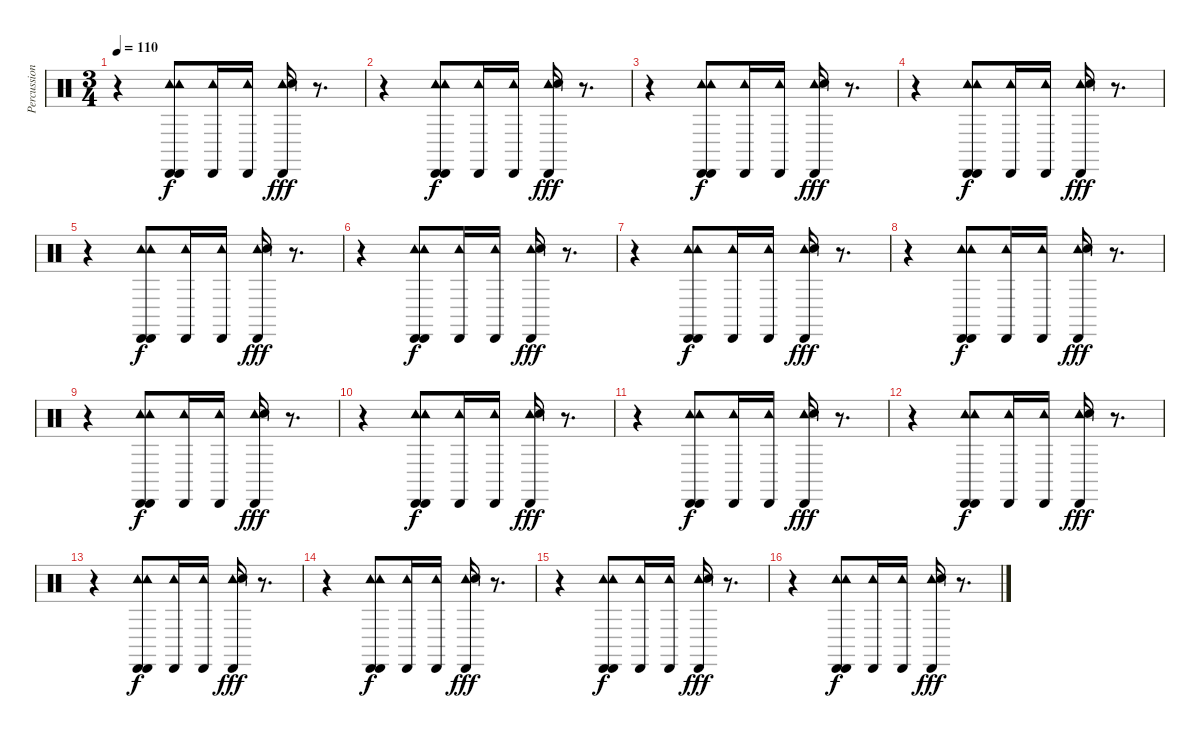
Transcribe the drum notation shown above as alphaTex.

\track ("Percussion" "Percussion") {instrument percussion}
\staff {score}
\articulation defaults
\ts (3 4)
\tempo 110
\clef neutral
\ks c
r.4{dy fff} ("Cabasa (hit)" "Cabasa (hit)" "Tambourine (hit)" "Tambourine (hit)").8{dy f} ("Tambourine (hit)" "Cabasa (hit)").16 ("Tambourine (hit)" "Cabasa (hit)").16 ("Tambourine (hit)" "Cabasa (hit)" "Electric Snare (hit)").16{dy fff} r.8{d} |
r.4 ("Cabasa (hit)" "Cabasa (hit)" "Tambourine (hit)" "Tambourine (hit)").8{dy f} ("Tambourine (hit)" "Cabasa (hit)").16 ("Tambourine (hit)" "Cabasa (hit)").16 ("Tambourine (hit)" "Cabasa (hit)" "Electric Snare (hit)").16{dy fff} r.8{d} |
r.4 ("Cabasa (hit)" "Cabasa (hit)" "Tambourine (hit)" "Tambourine (hit)").8{dy f} ("Tambourine (hit)" "Cabasa (hit)").16 ("Tambourine (hit)" "Cabasa (hit)").16 ("Tambourine (hit)" "Cabasa (hit)" "Electric Snare (hit)").16{dy fff} r.8{d} |
r.4 ("Cabasa (hit)" "Cabasa (hit)" "Tambourine (hit)" "Tambourine (hit)").8{dy f} ("Tambourine (hit)" "Cabasa (hit)").16 ("Tambourine (hit)" "Cabasa (hit)").16 ("Tambourine (hit)" "Cabasa (hit)" "Electric Snare (hit)").16{dy fff} r.8{d} |
r.4 ("Cabasa (hit)" "Cabasa (hit)" "Tambourine (hit)" "Tambourine (hit)").8{dy f} ("Tambourine (hit)" "Cabasa (hit)").16 ("Tambourine (hit)" "Cabasa (hit)").16 ("Tambourine (hit)" "Cabasa (hit)" "Electric Snare (hit)").16{dy fff} r.8{d} |
r.4 ("Cabasa (hit)" "Cabasa (hit)" "Tambourine (hit)" "Tambourine (hit)").8{dy f} ("Tambourine (hit)" "Cabasa (hit)").16 ("Tambourine (hit)" "Cabasa (hit)").16 ("Tambourine (hit)" "Cabasa (hit)" "Electric Snare (hit)").16{dy fff} r.8{d} |
r.4 ("Cabasa (hit)" "Cabasa (hit)" "Tambourine (hit)" "Tambourine (hit)").8{dy f} ("Tambourine (hit)" "Cabasa (hit)").16 ("Tambourine (hit)" "Cabasa (hit)").16 ("Tambourine (hit)" "Cabasa (hit)" "Electric Snare (hit)").16{dy fff} r.8{d} |
r.4 ("Cabasa (hit)" "Cabasa (hit)" "Tambourine (hit)" "Tambourine (hit)").8{dy f} ("Tambourine (hit)" "Cabasa (hit)").16 ("Tambourine (hit)" "Cabasa (hit)").16 ("Tambourine (hit)" "Cabasa (hit)" "Electric Snare (hit)").16{dy fff} r.8{d} |
r.4 ("Cabasa (hit)" "Cabasa (hit)" "Tambourine (hit)" "Tambourine (hit)").8{dy f} ("Tambourine (hit)" "Cabasa (hit)").16 ("Tambourine (hit)" "Cabasa (hit)").16 ("Tambourine (hit)" "Cabasa (hit)" "Electric Snare (hit)").16{dy fff} r.8{d} |
r.4 ("Cabasa (hit)" "Cabasa (hit)" "Tambourine (hit)" "Tambourine (hit)").8{dy f} ("Tambourine (hit)" "Cabasa (hit)").16 ("Tambourine (hit)" "Cabasa (hit)").16 ("Tambourine (hit)" "Cabasa (hit)" "Electric Snare (hit)").16{dy fff} r.8{d} |
r.4 ("Cabasa (hit)" "Cabasa (hit)" "Tambourine (hit)" "Tambourine (hit)").8{dy f} ("Tambourine (hit)" "Cabasa (hit)").16 ("Tambourine (hit)" "Cabasa (hit)").16 ("Tambourine (hit)" "Cabasa (hit)" "Electric Snare (hit)").16{dy fff} r.8{d} |
r.4 ("Cabasa (hit)" "Cabasa (hit)" "Tambourine (hit)" "Tambourine (hit)").8{dy f} ("Tambourine (hit)" "Cabasa (hit)").16 ("Tambourine (hit)" "Cabasa (hit)").16 ("Tambourine (hit)" "Cabasa (hit)" "Electric Snare (hit)").16{dy fff} r.8{d} |
r.4 ("Cabasa (hit)" "Cabasa (hit)" "Tambourine (hit)" "Tambourine (hit)").8{dy f} ("Tambourine (hit)" "Cabasa (hit)").16 ("Tambourine (hit)" "Cabasa (hit)").16 ("Tambourine (hit)" "Cabasa (hit)" "Electric Snare (hit)").16{dy fff} r.8{d} |
r.4 ("Cabasa (hit)" "Cabasa (hit)" "Tambourine (hit)" "Tambourine (hit)").8{dy f} ("Tambourine (hit)" "Cabasa (hit)").16 ("Tambourine (hit)" "Cabasa (hit)").16 ("Tambourine (hit)" "Cabasa (hit)" "Electric Snare (hit)").16{dy fff} r.8{d} |
r.4 ("Cabasa (hit)" "Cabasa (hit)" "Tambourine (hit)" "Tambourine (hit)").8{dy f} ("Tambourine (hit)" "Cabasa (hit)").16 ("Tambourine (hit)" "Cabasa (hit)").16 ("Tambourine (hit)" "Cabasa (hit)" "Electric Snare (hit)").16{dy fff} r.8{d} |
r.4 ("Cabasa (hit)" "Cabasa (hit)" "Tambourine (hit)" "Tambourine (hit)").8{dy f} ("Tambourine (hit)" "Cabasa (hit)").16 ("Tambourine (hit)" "Cabasa (hit)").16 ("Tambourine (hit)" "Cabasa (hit)" "Electric Snare (hit)").16{dy fff} r.8{d}
